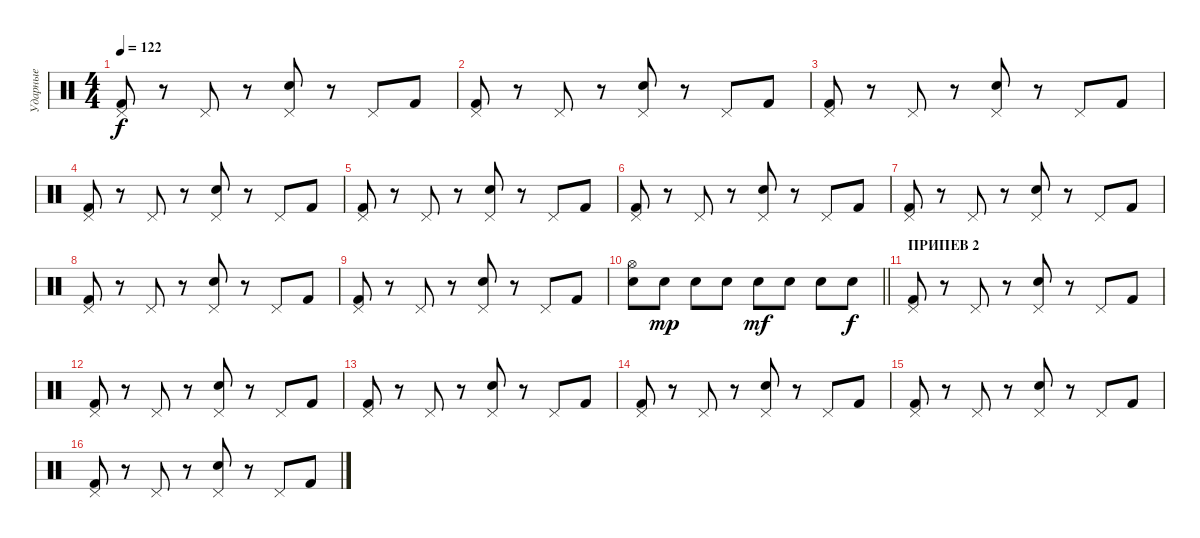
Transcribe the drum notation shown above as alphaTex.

\track ("Ударные" "Ударные") {instrument percussion}
\staff {score}
\articulation defaults
\ts (4 4)
\tempo 122
\clef neutral
\ks c
("Pedal Hi-Hat (hit)" "Kick (hit) 2").8{dy f} r.8 "Pedal Hi-Hat (hit)".8 r.8 ("Pedal Hi-Hat (hit)" "Snare (hit) 2").8 r.8 "Pedal Hi-Hat (hit)".8 "Kick (hit) 2".8 |
("Pedal Hi-Hat (hit)" "Kick (hit) 2").8 r.8 "Pedal Hi-Hat (hit)".8 r.8 ("Pedal Hi-Hat (hit)" "Snare (hit) 2").8 r.8 "Pedal Hi-Hat (hit)".8 "Kick (hit) 2".8 |
("Pedal Hi-Hat (hit)" "Kick (hit) 2").8 r.8 "Pedal Hi-Hat (hit)".8 r.8 ("Pedal Hi-Hat (hit)" "Snare (hit) 2").8 r.8 "Pedal Hi-Hat (hit)".8 "Kick (hit) 2".8 |
("Pedal Hi-Hat (hit)" "Kick (hit) 2").8 r.8 "Pedal Hi-Hat (hit)".8 r.8 ("Pedal Hi-Hat (hit)" "Snare (hit) 2").8 r.8 "Pedal Hi-Hat (hit)".8 "Kick (hit) 2".8 |
("Pedal Hi-Hat (hit)" "Kick (hit) 2").8 r.8 "Pedal Hi-Hat (hit)".8 r.8 ("Pedal Hi-Hat (hit)" "Snare (hit) 2").8 r.8 "Pedal Hi-Hat (hit)".8 "Kick (hit) 2".8 |
("Pedal Hi-Hat (hit)" "Kick (hit) 2").8 r.8 "Pedal Hi-Hat (hit)".8 r.8 ("Pedal Hi-Hat (hit)" "Snare (hit) 2").8 r.8 "Pedal Hi-Hat (hit)".8 "Kick (hit) 2".8 |
("Pedal Hi-Hat (hit)" "Kick (hit) 2").8 r.8 "Pedal Hi-Hat (hit)".8 r.8 ("Pedal Hi-Hat (hit)" "Snare (hit) 2").8 r.8 "Pedal Hi-Hat (hit)".8 "Kick (hit) 2".8 |
("Pedal Hi-Hat (hit)" "Kick (hit) 2").8 r.8 "Pedal Hi-Hat (hit)".8 r.8 ("Pedal Hi-Hat (hit)" "Snare (hit) 2").8 r.8 "Pedal Hi-Hat (hit)".8 "Kick (hit) 2".8 |
("Pedal Hi-Hat (hit)" "Kick (hit) 2").8 r.8 "Pedal Hi-Hat (hit)".8 r.8 ("Pedal Hi-Hat (hit)" "Snare (hit) 2").8 r.8 "Pedal Hi-Hat (hit)".8 "Kick (hit) 2".8 |
\barLineRight lightlight
("Hi-Hat (open)" "Snare (hit) 2").8 "Snare (hit) 2".8{dy mp} "Snare (hit) 2".8 "Snare (hit) 2".8 "Snare (hit) 2".8{dy mf} "Snare (hit) 2".8 "Snare (hit) 2".8 "Snare (hit) 2".8{dy f} |
\section ("" "ПРИПЕВ 2")
("Pedal Hi-Hat (hit)" "Kick (hit) 2").8 r.8 "Pedal Hi-Hat (hit)".8 r.8 ("Pedal Hi-Hat (hit)" "Snare (hit) 2").8 r.8 "Pedal Hi-Hat (hit)".8 "Kick (hit) 2".8 |
("Pedal Hi-Hat (hit)" "Kick (hit) 2").8 r.8 "Pedal Hi-Hat (hit)".8 r.8 ("Pedal Hi-Hat (hit)" "Snare (hit) 2").8 r.8 "Pedal Hi-Hat (hit)".8 "Kick (hit) 2".8 |
("Pedal Hi-Hat (hit)" "Kick (hit) 2").8 r.8 "Pedal Hi-Hat (hit)".8 r.8 ("Pedal Hi-Hat (hit)" "Snare (hit) 2").8 r.8 "Pedal Hi-Hat (hit)".8 "Kick (hit) 2".8 |
("Pedal Hi-Hat (hit)" "Kick (hit) 2").8 r.8 "Pedal Hi-Hat (hit)".8 r.8 ("Pedal Hi-Hat (hit)" "Snare (hit) 2").8 r.8 "Pedal Hi-Hat (hit)".8 "Kick (hit) 2".8 |
("Pedal Hi-Hat (hit)" "Kick (hit) 2").8 r.8 "Pedal Hi-Hat (hit)".8 r.8 ("Pedal Hi-Hat (hit)" "Snare (hit) 2").8 r.8 "Pedal Hi-Hat (hit)".8 "Kick (hit) 2".8 |
("Pedal Hi-Hat (hit)" "Kick (hit) 2").8 r.8 "Pedal Hi-Hat (hit)".8 r.8 ("Pedal Hi-Hat (hit)" "Snare (hit) 2").8 r.8 "Pedal Hi-Hat (hit)".8 "Kick (hit) 2".8
